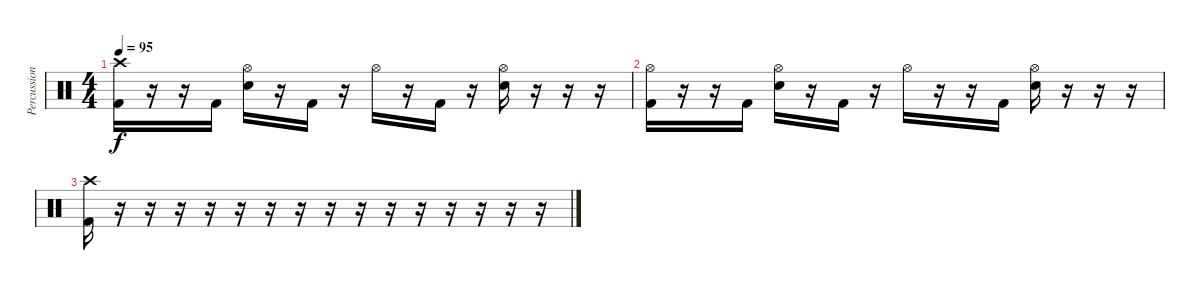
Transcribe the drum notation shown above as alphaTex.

\track ("Percussion" "Percussion") {instrument percussion}
\staff {score}
\articulation defaults
\ts (4 4)
\tempo 95
\clef neutral
\ks c
("Crash high (hit)" "Kick (hit) 2").16{dy f} r.16 r.16 "Kick (hit) 2".16 ("Hi-Hat (open)" "Snare (hit) 2").16 r.16 "Kick (hit) 2".16 r.16 "Hi-Hat (open)".16 r.16 "Kick (hit) 2".16 r.16 ("Hi-Hat (open)" "Snare (hit) 2").16 r.16 r.16 r.16 |
("Hi-Hat (open)" "Kick (hit) 2").16 r.16 r.16 "Kick (hit) 2".16 ("Hi-Hat (open)" "Snare (hit) 2").16 r.16 "Kick (hit) 2".16 r.16 "Hi-Hat (open)".16 r.16 r.16 "Kick (hit) 2".16 ("Hi-Hat (open)" "Snare (hit) 2").16 r.16 r.16 r.16 |
("Crash high (hit)" "Kick (hit) 2").16 r.16 r.16 r.16 r.16 r.16 r.16 r.16 r.16 r.16 r.16 r.16 r.16 r.16 r.16 r.16
